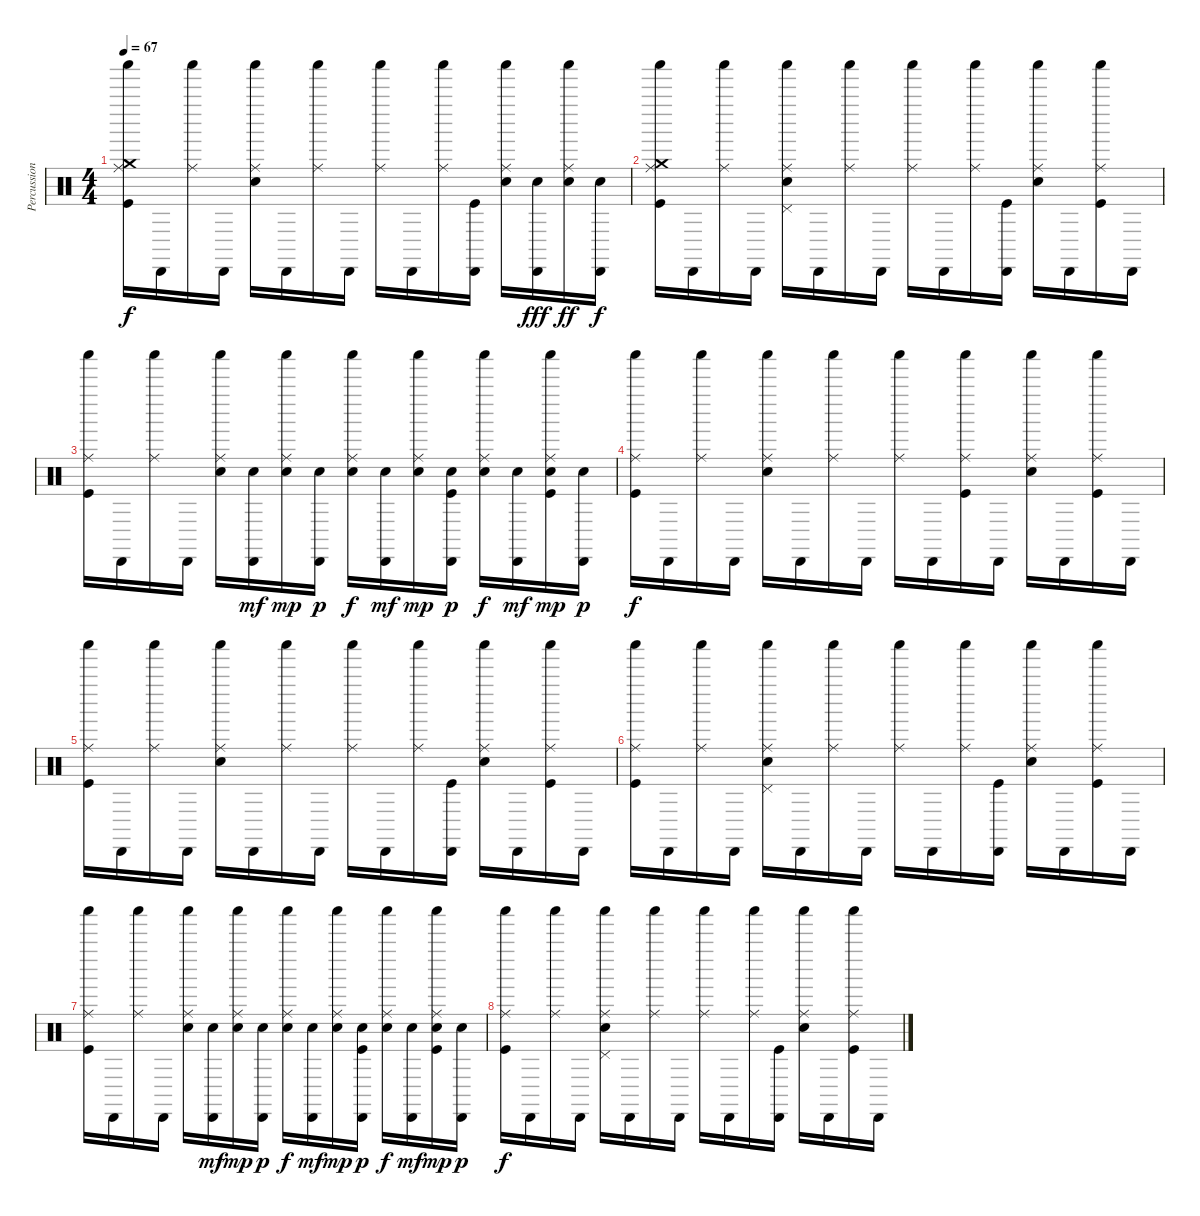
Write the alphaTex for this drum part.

\track ("Percussions" "Percussion") {instrument percussion}
\staff {score}
\articulation defaults
\ts (4 4)
\tempo 67
\clef neutral
\ks c
("Shaker (hit)" "Ride (middle)" "Crash medium (hit)" "Kick (hit)").16{dy f} "Cabasa (hit)".16 ("Shaker (hit)" "Ride (middle)").16 "Cabasa (hit)".16 ("Shaker (hit)" "Ride (middle)" "Snare (hit) 2").16 "Cabasa (hit)".16 ("Shaker (hit)" "Ride (middle)").16 "Cabasa (hit)".16 ("Shaker (hit)" "Ride (middle)").16 "Cabasa (hit)".16 ("Shaker (hit)" "Ride (middle)").16 ("Cabasa (hit)" "Kick (hit)").16 ("Shaker (hit)" "Ride (middle)" "Snare (hit) 2").16 ("Cabasa (hit)" "Snare (hit) 2").16{dy fff} ("Shaker (hit)" "Ride (middle)" "Electric Snare (hit)").16{dy ff} ("Cabasa (hit)" "Electric Snare (hit)").16{dy f} |
\section ("" "")
("Shaker (hit)" "Crash medium (hit)" "Ride (middle)" "Kick (hit)").16 "Cabasa (hit)".16 ("Shaker (hit)" "Ride (middle)").16 "Cabasa (hit)".16 ("Shaker (hit)" "Ride (middle)" "Pedal Hi-Hat (hit)" "Snare (hit) 2").16 "Cabasa (hit)".16 ("Shaker (hit)" "Ride (middle)").16 "Cabasa (hit)".16 ("Shaker (hit)" "Ride (middle)").16 "Cabasa (hit)".16 ("Shaker (hit)" "Ride (middle)").16 ("Cabasa (hit)" "Kick (hit)").16 ("Shaker (hit)" "Ride (middle)" "Snare (hit) 2").16 "Cabasa (hit)".16 ("Shaker (hit)" "Ride (middle)" "Kick (hit)").16 "Cabasa (hit)".16 |
("Shaker (hit)" "Ride (middle)" "Kick (hit)").16 "Cabasa (hit)".16 ("Shaker (hit)" "Ride (middle)").16 "Cabasa (hit)".16 ("Shaker (hit)" "Ride (middle)" "Snare (hit) 2").16 ("Cabasa (hit)" "Snare (hit) 2").16{dy mf} ("Shaker (hit)" "Ride (middle)" "Snare (hit) 2").16{dy mp} ("Cabasa (hit)" "Snare (hit) 2").16{dy p} ("Shaker (hit)" "Ride (middle)" "Snare (hit) 2").16{dy f} ("Cabasa (hit)" "Snare (hit) 2").16{dy mf} ("Shaker (hit)" "Ride (middle)" "Snare (hit) 2").16{dy mp} ("Cabasa (hit)" "Snare (hit) 2" "Kick (hit)").16{dy p} ("Shaker (hit)" "Ride (middle)" "Snare (hit) 2").16{dy f} ("Cabasa (hit)" "Snare (hit) 2").16{dy mf} ("Shaker (hit)" "Ride (middle)" "Snare (hit) 2" "Kick (hit)").16{dy mp} ("Cabasa (hit)" "Snare (hit) 2").16{dy p} |
("Shaker (hit)" "Ride (middle)" "Kick (hit)").16{dy f} "Cabasa (hit)".16 ("Shaker (hit)" "Ride (middle)").16 "Cabasa (hit)".16 ("Shaker (hit)" "Ride (middle)" "Snare (hit) 2").16 "Cabasa (hit)".16 ("Shaker (hit)" "Ride (middle)").16 "Cabasa (hit)".16 ("Shaker (hit)" "Ride (middle)").16 "Cabasa (hit)".16 ("Shaker (hit)" "Ride (middle)" "Kick (hit)").16 "Cabasa (hit)".16 ("Shaker (hit)" "Ride (middle)" "Snare (hit) 2").16 "Cabasa (hit)".16 ("Shaker (hit)" "Ride (middle)" "Kick (hit)").16 "Cabasa (hit)".16 |
("Shaker (hit)" "Ride (middle)" "Kick (hit)").16 "Cabasa (hit)".16 ("Shaker (hit)" "Ride (middle)").16 "Cabasa (hit)".16 ("Shaker (hit)" "Ride (middle)" "Snare (hit) 2").16 "Cabasa (hit)".16 ("Shaker (hit)" "Ride (middle)").16 "Cabasa (hit)".16 ("Shaker (hit)" "Ride (middle)").16 "Cabasa (hit)".16 ("Shaker (hit)" "Ride (middle)").16 ("Cabasa (hit)" "Kick (hit)").16 ("Shaker (hit)" "Ride (middle)" "Snare (hit) 2").16 "Cabasa (hit)".16 ("Shaker (hit)" "Ride (middle)" "Kick (hit)").16 "Cabasa (hit)".16 |
("Shaker (hit)" "Ride (middle)" "Kick (hit)").16 "Cabasa (hit)".16 ("Shaker (hit)" "Ride (middle)").16 "Cabasa (hit)".16 ("Shaker (hit)" "Ride (middle)" "Pedal Hi-Hat (hit)" "Snare (hit) 2").16 "Cabasa (hit)".16 ("Shaker (hit)" "Ride (middle)").16 "Cabasa (hit)".16 ("Shaker (hit)" "Ride (middle)").16 "Cabasa (hit)".16 ("Shaker (hit)" "Ride (middle)").16 ("Cabasa (hit)" "Kick (hit)").16 ("Shaker (hit)" "Ride (middle)" "Snare (hit) 2").16 "Cabasa (hit)".16 ("Shaker (hit)" "Ride (middle)" "Kick (hit)").16 "Cabasa (hit)".16 |
("Shaker (hit)" "Ride (middle)" "Kick (hit)").16 "Cabasa (hit)".16 ("Shaker (hit)" "Ride (middle)").16 "Cabasa (hit)".16 ("Shaker (hit)" "Ride (middle)" "Snare (hit) 2").16 ("Cabasa (hit)" "Snare (hit) 2").16{dy mf} ("Shaker (hit)" "Ride (middle)" "Snare (hit) 2").16{dy mp} ("Cabasa (hit)" "Snare (hit) 2").16{dy p} ("Shaker (hit)" "Ride (middle)" "Snare (hit) 2").16{dy f} ("Cabasa (hit)" "Snare (hit) 2").16{dy mf} ("Shaker (hit)" "Ride (middle)" "Snare (hit) 2").16{dy mp} ("Cabasa (hit)" "Snare (hit) 2" "Kick (hit)").16{dy p} ("Shaker (hit)" "Ride (middle)" "Snare (hit) 2").16{dy f} ("Cabasa (hit)" "Snare (hit) 2").16{dy mf} ("Shaker (hit)" "Ride (middle)" "Snare (hit) 2" "Kick (hit)").16{dy mp} ("Cabasa (hit)" "Snare (hit) 2").16{dy p} |
("Shaker (hit)" "Ride (middle)" "Kick (hit)").16{dy f} "Cabasa (hit)".16 ("Shaker (hit)" "Ride (middle)").16 "Cabasa (hit)".16 ("Shaker (hit)" "Ride (middle)" "Pedal Hi-Hat (hit)" "Snare (hit) 2").16 "Cabasa (hit)".16 ("Shaker (hit)" "Ride (middle)").16 "Cabasa (hit)".16 ("Shaker (hit)" "Ride (middle)").16 "Cabasa (hit)".16 ("Shaker (hit)" "Ride (middle)").16 ("Cabasa (hit)" "Kick (hit)").16 ("Shaker (hit)" "Ride (middle)" "Snare (hit) 2").16 "Cabasa (hit)".16 ("Shaker (hit)" "Ride (middle)" "Kick (hit)").16 "Cabasa (hit)".16
